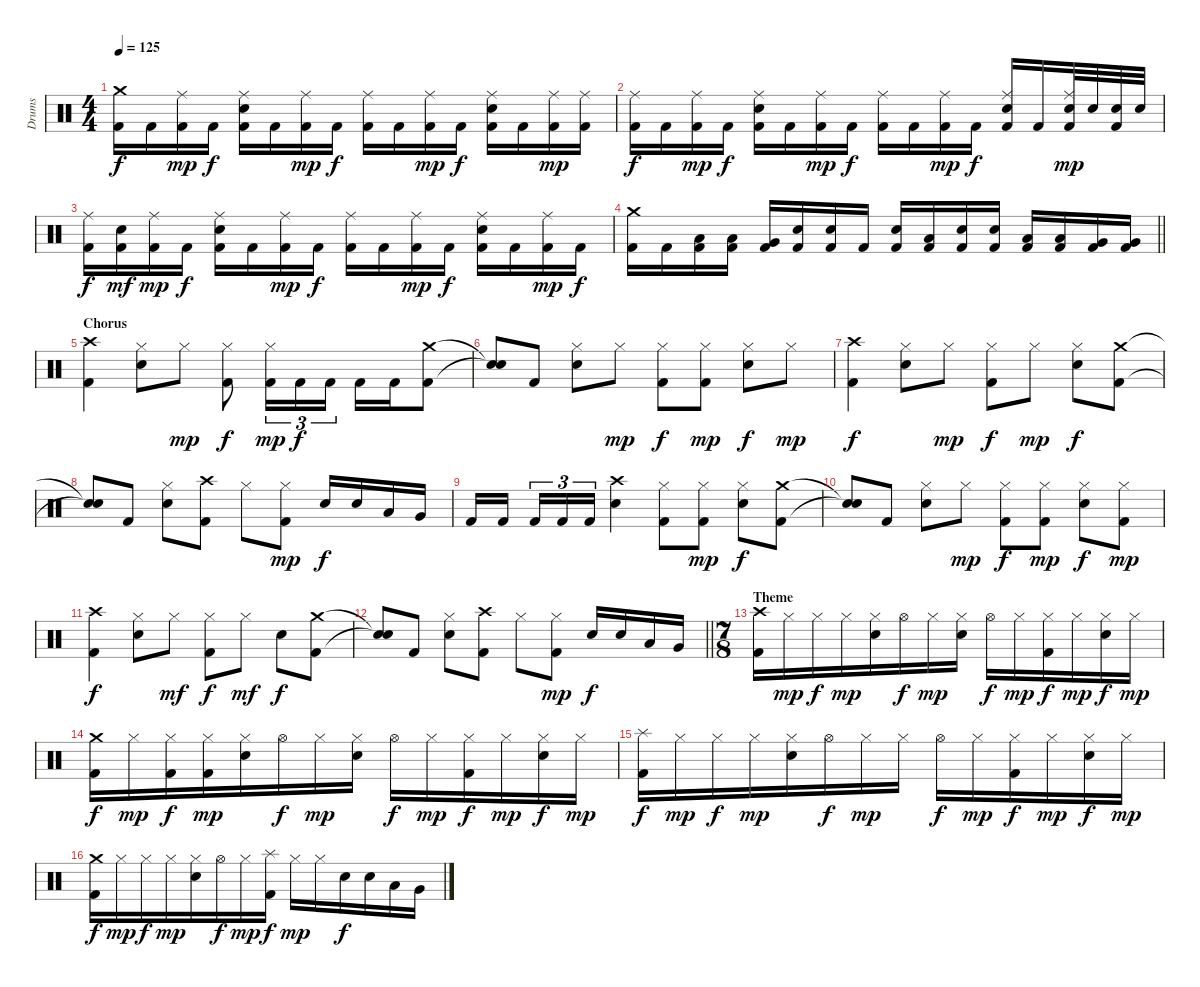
\track ("Drums" "Drums") {instrument percussion}
\staff {score}
\articulation defaults
\ts (4 4)
\tempo 125
\clef neutral
\ks c
("Kick (hit) 2" "Crash medium (hit)").16{dy f} "Kick (hit) 2".16 ("Kick (hit) 2" "Ride (middle)").16{dy mp} "Kick (hit) 2".16{dy f} ("Kick (hit) 2" "Ride (middle)" "Electric Snare (hit)").16 "Kick (hit) 2".16 ("Kick (hit) 2" "Ride (middle)").16{dy mp} "Kick (hit) 2".16{dy f} ("Kick (hit) 2" "Ride (middle)").16 "Kick (hit) 2".16 ("Kick (hit) 2" "Ride (middle)").16{dy mp} "Kick (hit) 2".16{dy f} ("Kick (hit) 2" "Ride (middle)" "Electric Snare (hit)").16 "Kick (hit) 2".16 ("Kick (hit) 2" "Ride (middle)").16{dy mp} ("Kick (hit) 2" "Ride (middle)").16 |
("Kick (hit) 2" "Ride (middle)").16{dy f} "Kick (hit) 2".16 ("Kick (hit) 2" "Ride (middle)").16{dy mp} "Kick (hit) 2".16{dy f} ("Kick (hit) 2" "Ride (middle)" "Electric Snare (hit)").16 "Kick (hit) 2".16 ("Kick (hit) 2" "Ride (middle)").16{dy mp} "Kick (hit) 2".16{dy f} ("Kick (hit) 2" "Ride (middle)").16 "Kick (hit) 2".16 ("Kick (hit) 2" "Ride (middle)").16{dy mp} "Kick (hit) 2".16{dy f} ("Kick (hit) 2" "Ride (middle)" "Electric Snare (hit)").16 "Kick (hit) 2".16 ("Kick (hit) 2" "Ride (middle)" "Electric Snare (hit)").32{dy mp} "Electric Snare (hit)".32 ("Kick (hit) 2" "Electric Snare (hit)").32 "Electric Snare (hit)".32 |
("Kick (hit) 2" "Ride (middle)").16{dy f} ("Kick (hit) 2" "Electric Snare (hit)").16{dy mf} ("Kick (hit) 2" "Ride (middle)").16{dy mp} "Kick (hit) 2".16{dy f} ("Kick (hit) 2" "Ride (middle)" "Electric Snare (hit)").16 "Kick (hit) 2".16 ("Kick (hit) 2" "Ride (middle)").16{dy mp} "Kick (hit) 2".16{dy f} ("Kick (hit) 2" "Ride (middle)").16 "Kick (hit) 2".16 ("Kick (hit) 2" "Ride (middle)").16{dy mp} "Kick (hit) 2".16{dy f} ("Kick (hit) 2" "Ride (middle)" "Electric Snare (hit)").16 "Kick (hit) 2".16 ("Kick (hit) 2" "Ride (middle)").16{dy mp} "Kick (hit) 2".16{dy f} |
\barLineRight lightlight
("Kick (hit) 2" "Crash medium (hit)").16 "Kick (hit) 2".16 ("Kick (hit) 2" "Low Tom (hit)").16 ("Kick (hit) 2" "Low Tom (hit)").16 ("Kick (hit) 2" "Very Low Tom (hit)").16 ("Kick (hit) 2" "Electric Snare (hit)").16 ("Kick (hit) 2" "Electric Snare (hit)").16 "Kick (hit) 2".16 ("Kick (hit) 2" "Electric Snare (hit)").16 ("Kick (hit) 2" "Low Tom (hit)").16 ("Kick (hit) 2" "Electric Snare (hit)").16 ("Kick (hit) 2" "Electric Snare (hit)").16 ("Kick (hit) 2" "Low Tom (hit)").16 ("Kick (hit) 2" "Low Tom (hit)").16 ("Kick (hit) 2" "Very Low Tom (hit)").16 ("Kick (hit) 2" "Very Low Tom (hit)").16 |
\section ("" "Chorus")
("Kick (hit) 2" "Crash high (hit)").4 ("Hi-Hat (closed)" "Electric Snare (hit)").8 "Hi-Hat (closed)".8{dy mp} ("Kick (hit) 2" "Hi-Hat (closed)").8{dy f} ("Kick (hit) 2" "Hi-Hat (closed)").16{tu (3 2) dy mp} "Kick (hit) 2".16{tu (3 2) dy f} "Kick (hit) 2".16{tu (3 2)} "Kick (hit) 2".16 "Kick (hit) 2".16 ("Kick (hit) 2" "Crash medium (hit)").8 |
("Snare (hit)"{t} "Snare (hit)"{t}).8 "Kick (hit) 2".8 ("Hi-Hat (closed)" "Electric Snare (hit)").8 "Hi-Hat (closed)".8{dy mp} ("Kick (hit) 2" "Hi-Hat (closed)").8{dy f} ("Kick (hit) 2" "Hi-Hat (closed)").8{dy mp} ("Hi-Hat (closed)" "Electric Snare (hit)").8{dy f} "Hi-Hat (closed)".8{dy mp} |
("Kick (hit) 2" "Crash high (hit)").4{dy f} ("Hi-Hat (closed)" "Electric Snare (hit)").8 "Hi-Hat (closed)".8{dy mp} ("Kick (hit) 2" "Hi-Hat (closed)").8{dy f} "Hi-Hat (closed)".8{dy mp} ("Hi-Hat (closed)" "Electric Snare (hit)").8{dy f} ("Kick (hit) 2" "Crash medium (hit)").8 |
("Snare (hit)"{t} "Snare (hit)"{t}).8 "Kick (hit) 2".8 ("Hi-Hat (closed)" "Electric Snare (hit)").8 ("Kick (hit) 2" "Crash high (hit)").8 "Hi-Hat (closed)".8 ("Kick (hit) 2" "Hi-Hat (closed)").8{dy mp} "Electric Snare (hit)".16{dy f} "Electric Snare (hit)".16 "Low Tom (hit)".16 "Very Low Tom (hit)".16 |
"Kick (hit) 2".16 "Kick (hit) 2".16{beam splitsecondary} "Kick (hit) 2".16{tu (3 2)} "Kick (hit) 2".16{tu (3 2)} "Kick (hit) 2".16{tu (3 2)} ("Crash high (hit)" "Electric Snare (hit)").4 ("Kick (hit) 2" "Hi-Hat (closed)").8 ("Kick (hit) 2" "Hi-Hat (closed)").8{dy mp} ("Hi-Hat (closed)" "Electric Snare (hit)").8{dy f} ("Kick (hit) 2" "Crash medium (hit)").8 |
("Snare (hit)"{t} "Snare (hit)"{t}).8 "Kick (hit) 2".8 ("Hi-Hat (closed)" "Electric Snare (hit)").8 "Hi-Hat (closed)".8{dy mp} ("Kick (hit) 2" "Hi-Hat (closed)").8{dy f} ("Kick (hit) 2" "Hi-Hat (closed)").8{dy mp} ("Hi-Hat (closed)" "Electric Snare (hit)").8{dy f} ("Kick (hit) 2" "Hi-Hat (closed)").8{dy mp} |
("Kick (hit) 2" "Crash high (hit)").4{dy f} ("Hi-Hat (closed)" "Electric Snare (hit)").8 "Hi-Hat (closed)".8{dy mf} ("Kick (hit) 2" "Hi-Hat (closed)").8{dy f} "Hi-Hat (closed)".8{dy mf} "Electric Snare (hit)".8{dy f} ("Kick (hit) 2" "Crash medium (hit)").8 |
\barLineRight lightlight
("Snare (hit)"{t} "Snare (hit)"{t}).8 "Kick (hit) 2".8 ("Hi-Hat (closed)" "Electric Snare (hit)").8 ("Kick (hit) 2" "Crash high (hit)").8 "Hi-Hat (closed)".8 ("Kick (hit) 2" "Hi-Hat (closed)").8{dy mp} "Electric Snare (hit)".16{dy f} "Electric Snare (hit)".16 "Low Tom (hit)".16 "Very Low Tom (hit)".16 |
\ts (7 8)
\section ("" "Theme")
("Kick (hit) 2" "Crash high (hit)").16 "Hi-Hat (closed)".16{dy mp} "Hi-Hat (closed)".16{dy f} "Hi-Hat (closed)".16{dy mp} ("Hi-Hat (closed)" "Electric Snare (hit)").16 "Hi-Hat (open)".16{dy f} "Hi-Hat (closed)".16{dy mp} ("Hi-Hat (closed)" "Electric Snare (hit)").16 "Hi-Hat (open)".16{dy f} "Hi-Hat (closed)".16{dy mp} ("Kick (hit) 2" "Hi-Hat (closed)").16{dy f} "Hi-Hat (closed)".16{dy mp} ("Hi-Hat (closed)" "Electric Snare (hit)").16{dy f} "Hi-Hat (closed)".16{dy mp} |
("Kick (hit) 2" "Crash medium (hit)").16{dy f} "Hi-Hat (closed)".16{dy mp} ("Kick (hit) 2" "Hi-Hat (closed)").16{dy f} ("Kick (hit) 2" "Hi-Hat (closed)").16{dy mp} ("Hi-Hat (closed)" "Electric Snare (hit)").16 "Hi-Hat (open)".16{dy f} "Hi-Hat (closed)".16{dy mp} ("Hi-Hat (closed)" "Electric Snare (hit)").16 "Hi-Hat (open)".16{dy f} "Hi-Hat (closed)".16{dy mp} ("Kick (hit) 2" "Hi-Hat (closed)").16{dy f} "Hi-Hat (closed)".16{dy mp} ("Hi-Hat (closed)" "Electric Snare (hit)").16{dy f} "Hi-Hat (closed)".16{dy mp} |
("Kick (hit) 2" "Splash (hit)").16{dy f} "Hi-Hat (closed)".16{dy mp} "Hi-Hat (closed)".16{dy f} "Hi-Hat (closed)".16{dy mp} ("Hi-Hat (closed)" "Electric Snare (hit)").16 "Hi-Hat (open)".16{dy f} "Hi-Hat (closed)".16{dy mp} "Hi-Hat (closed)".16 "Hi-Hat (open)".16{dy f} "Hi-Hat (closed)".16{dy mp} ("Kick (hit) 2" "Hi-Hat (closed)").16{dy f} "Hi-Hat (closed)".16{dy mp} ("Hi-Hat (closed)" "Electric Snare (hit)").16{dy f} "Hi-Hat (closed)".16{dy mp} |
("Kick (hit) 2" "Crash medium (hit)").16{dy f} "Hi-Hat (closed)".16{dy mp} "Hi-Hat (closed)".16{dy f} "Hi-Hat (closed)".16{dy mp} ("Hi-Hat (closed)" "Electric Snare (hit)").16 "Hi-Hat (open)".16{dy f} "Hi-Hat (closed)".16{dy mp} ("Kick (hit) 2" "Splash (hit)").16{dy f} "Hi-Hat (closed)".16{dy mp} "Hi-Hat (closed)".16 "Electric Snare (hit)".16{dy f} "Electric Snare (hit)".16 "Low Tom (hit)".16 "Very Low Tom (hit)".16
